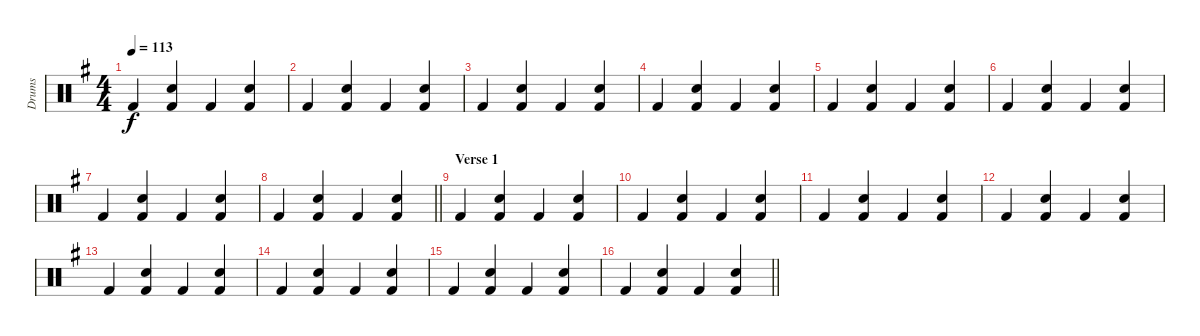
\track ("Drums" "Drums") {instrument percussion}
\staff {score}
\articulation defaults
\ts (4 4)
\tempo 113
\clef neutral
\ks g "Kick (hit) 2".4{dy f}
("Snare (hit) 2" "Kick (hit) 2").4 "Kick (hit) 2".4 ("Snare (hit) 2" "Kick (hit) 2").4 |
"Kick (hit) 2".4 ("Snare (hit) 2" "Kick (hit) 2").4 "Kick (hit) 2".4 ("Snare (hit) 2" "Kick (hit) 2").4 |
"Kick (hit) 2".4 ("Snare (hit) 2" "Kick (hit) 2").4 "Kick (hit) 2".4 ("Snare (hit) 2" "Kick (hit) 2").4 |
"Kick (hit) 2".4 ("Snare (hit) 2" "Kick (hit) 2").4 "Kick (hit) 2".4 ("Snare (hit) 2" "Kick (hit) 2").4 |
"Kick (hit) 2".4 ("Snare (hit) 2" "Kick (hit) 2").4 "Kick (hit) 2".4 ("Snare (hit) 2" "Kick (hit) 2").4 |
"Kick (hit) 2".4 ("Snare (hit) 2" "Kick (hit) 2").4 "Kick (hit) 2".4 ("Snare (hit) 2" "Kick (hit) 2").4 |
"Kick (hit) 2".4 ("Snare (hit) 2" "Kick (hit) 2").4 "Kick (hit) 2".4 ("Snare (hit) 2" "Kick (hit) 2").4 |
\barLineRight lightlight "Kick (hit) 2".4
("Snare (hit) 2" "Kick (hit) 2").4 "Kick (hit) 2".4 ("Snare (hit) 2" "Kick (hit) 2").4 |
\section ("" "Verse 1")
"Kick (hit) 2".4 ("Snare (hit) 2" "Kick (hit) 2").4 "Kick (hit) 2".4 ("Snare (hit) 2" "Kick (hit) 2").4 |
"Kick (hit) 2".4 ("Snare (hit) 2" "Kick (hit) 2").4 "Kick (hit) 2".4 ("Snare (hit) 2" "Kick (hit) 2").4 |
"Kick (hit) 2".4 ("Snare (hit) 2" "Kick (hit) 2").4 "Kick (hit) 2".4 ("Snare (hit) 2" "Kick (hit) 2").4 |
"Kick (hit) 2".4 ("Snare (hit) 2" "Kick (hit) 2").4 "Kick (hit) 2".4 ("Snare (hit) 2" "Kick (hit) 2").4 |
"Kick (hit) 2".4 ("Snare (hit) 2" "Kick (hit) 2").4 "Kick (hit) 2".4 ("Snare (hit) 2" "Kick (hit) 2").4 |
"Kick (hit) 2".4 ("Snare (hit) 2" "Kick (hit) 2").4 "Kick (hit) 2".4 ("Snare (hit) 2" "Kick (hit) 2").4 |
"Kick (hit) 2".4 ("Snare (hit) 2" "Kick (hit) 2").4 "Kick (hit) 2".4 ("Snare (hit) 2" "Kick (hit) 2").4 |
\barLineRight lightlight "Kick (hit) 2".4
("Snare (hit) 2" "Kick (hit) 2").4 "Kick (hit) 2".4 ("Snare (hit) 2" "Kick (hit) 2").4
